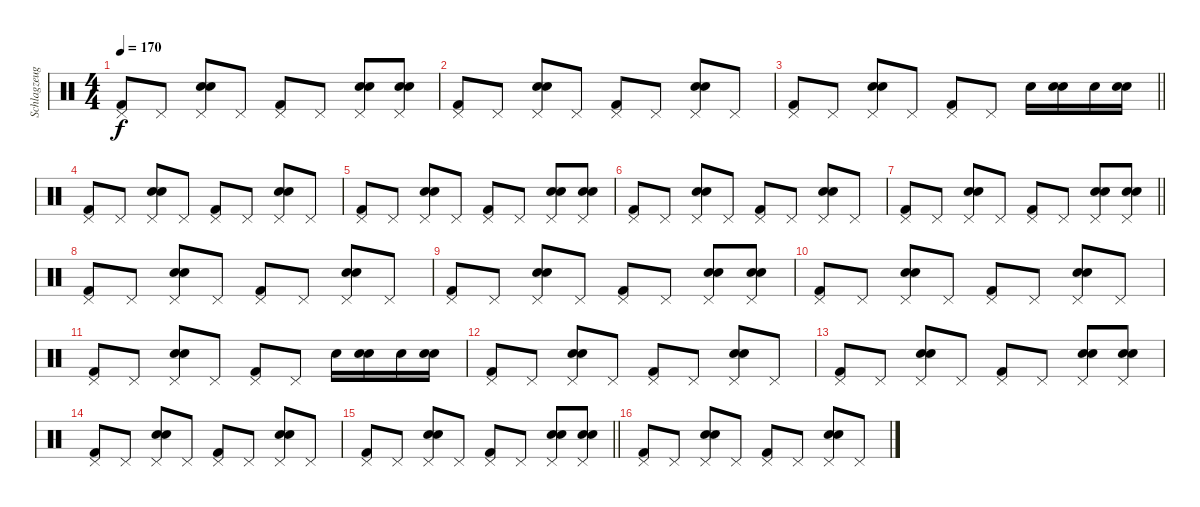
\track ("Schlagzeug" "Schlagzeug") {instrument percussion}
\staff {score}
\articulation defaults
\ts (4 4)
\tempo 170
\clef neutral
\ks c
("Pedal Hi-Hat (hit)" "Kick (hit) 2").8{dy f} "Pedal Hi-Hat (hit)".8 ("Pedal Hi-Hat (hit)" "Snare (hit) 2" "Snare (hit) 2").8 "Pedal Hi-Hat (hit)".8 ("Pedal Hi-Hat (hit)" "Kick (hit) 2").8 "Pedal Hi-Hat (hit)".8 ("Pedal Hi-Hat (hit)" "Snare (hit) 2" "Snare (hit) 2").8 ("Pedal Hi-Hat (hit)" "Snare (hit) 2" "Snare (hit) 2").8 |
("Pedal Hi-Hat (hit)" "Kick (hit) 2").8 "Pedal Hi-Hat (hit)".8 ("Pedal Hi-Hat (hit)" "Snare (hit) 2" "Snare (hit) 2").8 "Pedal Hi-Hat (hit)".8 ("Pedal Hi-Hat (hit)" "Kick (hit) 2").8 "Pedal Hi-Hat (hit)".8 ("Pedal Hi-Hat (hit)" "Snare (hit) 2" "Snare (hit) 2").8 "Pedal Hi-Hat (hit)".8 |
\barLineRight lightlight
("Pedal Hi-Hat (hit)" "Kick (hit) 2").8 "Pedal Hi-Hat (hit)".8 ("Pedal Hi-Hat (hit)" "Snare (hit) 2" "Snare (hit) 2").8 "Pedal Hi-Hat (hit)".8 ("Pedal Hi-Hat (hit)" "Kick (hit) 2").8 "Pedal Hi-Hat (hit)".8 "Snare (hit) 2".16 ("Snare (hit) 2" "Snare (hit) 2").16 "Snare (hit) 2".16 ("Snare (hit) 2" "Snare (hit) 2").16 |
("Pedal Hi-Hat (hit)" "Kick (hit) 2").8 "Pedal Hi-Hat (hit)".8 ("Pedal Hi-Hat (hit)" "Snare (hit) 2" "Snare (hit) 2").8 "Pedal Hi-Hat (hit)".8 ("Pedal Hi-Hat (hit)" "Kick (hit) 2").8 "Pedal Hi-Hat (hit)".8 ("Pedal Hi-Hat (hit)" "Snare (hit) 2" "Snare (hit) 2").8 "Pedal Hi-Hat (hit)".8 |
("Pedal Hi-Hat (hit)" "Kick (hit) 2").8 "Pedal Hi-Hat (hit)".8 ("Pedal Hi-Hat (hit)" "Snare (hit) 2" "Snare (hit) 2").8 "Pedal Hi-Hat (hit)".8 ("Pedal Hi-Hat (hit)" "Kick (hit) 2").8 "Pedal Hi-Hat (hit)".8 ("Pedal Hi-Hat (hit)" "Snare (hit) 2" "Snare (hit) 2").8 ("Pedal Hi-Hat (hit)" "Snare (hit) 2" "Snare (hit) 2").8 |
("Pedal Hi-Hat (hit)" "Kick (hit) 2").8 "Pedal Hi-Hat (hit)".8 ("Pedal Hi-Hat (hit)" "Snare (hit) 2" "Snare (hit) 2").8 "Pedal Hi-Hat (hit)".8 ("Pedal Hi-Hat (hit)" "Kick (hit) 2").8 "Pedal Hi-Hat (hit)".8 ("Pedal Hi-Hat (hit)" "Snare (hit) 2" "Snare (hit) 2").8 "Pedal Hi-Hat (hit)".8 |
\barLineRight lightlight
("Pedal Hi-Hat (hit)" "Kick (hit) 2").8 "Pedal Hi-Hat (hit)".8 ("Pedal Hi-Hat (hit)" "Snare (hit) 2" "Snare (hit) 2").8 "Pedal Hi-Hat (hit)".8 ("Pedal Hi-Hat (hit)" "Kick (hit) 2").8 "Pedal Hi-Hat (hit)".8 ("Pedal Hi-Hat (hit)" "Snare (hit) 2" "Snare (hit) 2").8 ("Pedal Hi-Hat (hit)" "Snare (hit) 2" "Snare (hit) 2").8 |
("Pedal Hi-Hat (hit)" "Kick (hit) 2").8 "Pedal Hi-Hat (hit)".8 ("Pedal Hi-Hat (hit)" "Snare (hit) 2" "Snare (hit) 2").8 "Pedal Hi-Hat (hit)".8 ("Pedal Hi-Hat (hit)" "Kick (hit) 2").8 "Pedal Hi-Hat (hit)".8 ("Pedal Hi-Hat (hit)" "Snare (hit) 2" "Snare (hit) 2").8 "Pedal Hi-Hat (hit)".8 |
("Pedal Hi-Hat (hit)" "Kick (hit) 2").8 "Pedal Hi-Hat (hit)".8 ("Pedal Hi-Hat (hit)" "Snare (hit) 2" "Snare (hit) 2").8 "Pedal Hi-Hat (hit)".8 ("Pedal Hi-Hat (hit)" "Kick (hit) 2").8 "Pedal Hi-Hat (hit)".8 ("Pedal Hi-Hat (hit)" "Snare (hit) 2" "Snare (hit) 2").8 ("Pedal Hi-Hat (hit)" "Snare (hit) 2" "Snare (hit) 2").8 |
("Pedal Hi-Hat (hit)" "Kick (hit) 2").8 "Pedal Hi-Hat (hit)".8 ("Pedal Hi-Hat (hit)" "Snare (hit) 2" "Snare (hit) 2").8 "Pedal Hi-Hat (hit)".8 ("Pedal Hi-Hat (hit)" "Kick (hit) 2").8 "Pedal Hi-Hat (hit)".8 ("Pedal Hi-Hat (hit)" "Snare (hit) 2" "Snare (hit) 2").8 "Pedal Hi-Hat (hit)".8 |
("Pedal Hi-Hat (hit)" "Kick (hit) 2").8 "Pedal Hi-Hat (hit)".8 ("Pedal Hi-Hat (hit)" "Snare (hit) 2" "Snare (hit) 2").8 "Pedal Hi-Hat (hit)".8 ("Pedal Hi-Hat (hit)" "Kick (hit) 2").8 "Pedal Hi-Hat (hit)".8 "Snare (hit) 2".16 ("Snare (hit) 2" "Snare (hit) 2").16 "Snare (hit) 2".16 ("Snare (hit) 2" "Snare (hit) 2").16 |
("Pedal Hi-Hat (hit)" "Kick (hit) 2").8 "Pedal Hi-Hat (hit)".8 ("Pedal Hi-Hat (hit)" "Snare (hit) 2" "Snare (hit) 2").8 "Pedal Hi-Hat (hit)".8 ("Pedal Hi-Hat (hit)" "Kick (hit) 2").8 "Pedal Hi-Hat (hit)".8 ("Pedal Hi-Hat (hit)" "Snare (hit) 2" "Snare (hit) 2").8 "Pedal Hi-Hat (hit)".8 |
("Pedal Hi-Hat (hit)" "Kick (hit) 2").8 "Pedal Hi-Hat (hit)".8 ("Pedal Hi-Hat (hit)" "Snare (hit) 2" "Snare (hit) 2").8 "Pedal Hi-Hat (hit)".8 ("Pedal Hi-Hat (hit)" "Kick (hit) 2").8 "Pedal Hi-Hat (hit)".8 ("Pedal Hi-Hat (hit)" "Snare (hit) 2" "Snare (hit) 2").8 ("Pedal Hi-Hat (hit)" "Snare (hit) 2" "Snare (hit) 2").8 |
("Pedal Hi-Hat (hit)" "Kick (hit) 2").8 "Pedal Hi-Hat (hit)".8 ("Pedal Hi-Hat (hit)" "Snare (hit) 2" "Snare (hit) 2").8 "Pedal Hi-Hat (hit)".8 ("Pedal Hi-Hat (hit)" "Kick (hit) 2").8 "Pedal Hi-Hat (hit)".8 ("Pedal Hi-Hat (hit)" "Snare (hit) 2" "Snare (hit) 2").8 "Pedal Hi-Hat (hit)".8 |
\barLineRight lightlight
("Pedal Hi-Hat (hit)" "Kick (hit) 2").8 "Pedal Hi-Hat (hit)".8 ("Pedal Hi-Hat (hit)" "Snare (hit) 2" "Snare (hit) 2").8 "Pedal Hi-Hat (hit)".8 ("Pedal Hi-Hat (hit)" "Kick (hit) 2").8 "Pedal Hi-Hat (hit)".8 ("Pedal Hi-Hat (hit)" "Snare (hit) 2" "Snare (hit) 2").8 ("Pedal Hi-Hat (hit)" "Snare (hit) 2" "Snare (hit) 2").8 |
("Pedal Hi-Hat (hit)" "Kick (hit) 2").8 "Pedal Hi-Hat (hit)".8 ("Pedal Hi-Hat (hit)" "Snare (hit) 2" "Snare (hit) 2").8 "Pedal Hi-Hat (hit)".8 ("Pedal Hi-Hat (hit)" "Kick (hit) 2").8 "Pedal Hi-Hat (hit)".8 ("Pedal Hi-Hat (hit)" "Snare (hit) 2" "Snare (hit) 2").8 "Pedal Hi-Hat (hit)".8
